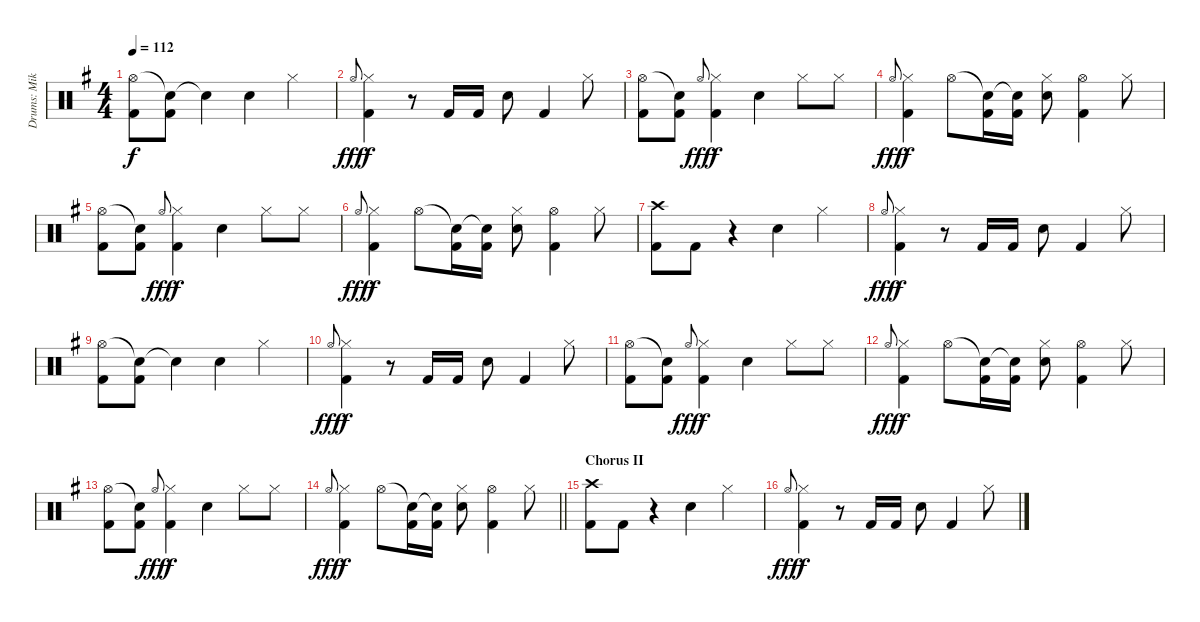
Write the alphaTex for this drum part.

\track ("Drums: Mike" "Drums: Mik") {instrument percussion}
\staff {score}
\articulation defaults
\ts (4 4)
\tempo 112
\clef neutral
\ks g
("Hi-Hat (open)" "Kick (hit) 2").8{dy f} ("Snare (hit)"{t} "Kick (hit) 2").8 "Snare (hit)"{t}.4 "Electric Snare (hit)".4 "Hi-Hat (closed)".4 |
"Hi-Hat (open)".8{gr onbeat dy fff} ("Hi-Hat (closed)" "Kick (hit) 2").4{dy f} r.8 "Kick (hit) 2".16 "Kick (hit) 2".16 "Electric Snare (hit)".8 "Kick (hit) 2".4 "Hi-Hat (closed)".8 |
("Hi-Hat (open)" "Kick (hit) 2").8 ("Snare (hit)"{t} "Kick (hit) 2").8 "Hi-Hat (open)".8{gr onbeat dy fff} ("Hi-Hat (closed)" "Kick (hit) 2").4{dy f} "Electric Snare (hit)".4 "Hi-Hat (closed)".8 "Hi-Hat (closed)".8 |
"Hi-Hat (open)".8{gr onbeat dy fff} ("Hi-Hat (closed)" "Kick (hit) 2").4{dy f} "Hi-Hat (open)".8 ("Snare (hit)"{t} "Kick (hit) 2").16 ("Snare (hit)"{t} "Kick (hit) 2").16 ("Hi-Hat (closed)" "Electric Snare (hit)").8 ("Hi-Hat (open)" "Kick (hit) 2").4 "Hi-Hat (closed)".8 |
("Hi-Hat (open)" "Kick (hit) 2").8 ("Snare (hit)"{t} "Kick (hit) 2").8 "Hi-Hat (open)".8{gr onbeat dy fff} ("Hi-Hat (closed)" "Kick (hit) 2").4{dy f} "Electric Snare (hit)".4 "Hi-Hat (closed)".8 "Hi-Hat (closed)".8 |
"Hi-Hat (open)".8{gr onbeat dy fff} ("Hi-Hat (closed)" "Kick (hit) 2").4{dy f} "Hi-Hat (open)".8 ("Snare (hit)"{t} "Kick (hit) 2").16 ("Snare (hit)"{t} "Kick (hit) 2").16 ("Hi-Hat (closed)" "Electric Snare (hit)").8 ("Hi-Hat (open)" "Kick (hit) 2").4 "Hi-Hat (closed)".8 |
("Crash high (hit)" "Kick (hit) 2").8 "Kick (hit) 2".8 r.4 "Electric Snare (hit)".4 "Hi-Hat (closed)".4 |
"Hi-Hat (open)".8{gr onbeat dy fff} ("Hi-Hat (closed)" "Kick (hit) 2").4{dy f} r.8 "Kick (hit) 2".16 "Kick (hit) 2".16 "Electric Snare (hit)".8 "Kick (hit) 2".4 "Hi-Hat (closed)".8 |
("Hi-Hat (open)" "Kick (hit) 2").8 ("Snare (hit)"{t} "Kick (hit) 2").8 "Snare (hit)"{t}.4 "Electric Snare (hit)".4 "Hi-Hat (closed)".4 |
"Hi-Hat (open)".8{gr onbeat dy fff} ("Hi-Hat (closed)" "Kick (hit) 2").4{dy f} r.8 "Kick (hit) 2".16 "Kick (hit) 2".16 "Electric Snare (hit)".8 "Kick (hit) 2".4 "Hi-Hat (closed)".8 |
("Hi-Hat (open)" "Kick (hit) 2").8 ("Snare (hit)"{t} "Kick (hit) 2").8 "Hi-Hat (open)".8{gr onbeat dy fff} ("Hi-Hat (closed)" "Kick (hit) 2").4{dy f} "Electric Snare (hit)".4 "Hi-Hat (closed)".8 "Hi-Hat (closed)".8 |
"Hi-Hat (open)".8{gr onbeat dy fff} ("Hi-Hat (closed)" "Kick (hit) 2").4{dy f} "Hi-Hat (open)".8 ("Snare (hit)"{t} "Kick (hit) 2").16 ("Snare (hit)"{t} "Kick (hit) 2").16 ("Hi-Hat (closed)" "Electric Snare (hit)").8 ("Hi-Hat (open)" "Kick (hit) 2").4 "Hi-Hat (closed)".8 |
("Hi-Hat (open)" "Kick (hit) 2").8 ("Snare (hit)"{t} "Kick (hit) 2").8 "Hi-Hat (open)".8{gr onbeat dy fff} ("Hi-Hat (closed)" "Kick (hit) 2").4{dy f} "Electric Snare (hit)".4 "Hi-Hat (closed)".8 "Hi-Hat (closed)".8 |
\barLineRight lightlight "Hi-Hat (open)".8{gr onbeat dy fff}
("Hi-Hat (closed)" "Kick (hit) 2").4{dy f} "Hi-Hat (open)".8 ("Snare (hit)"{t} "Kick (hit) 2").16 ("Snare (hit)"{t} "Kick (hit) 2").16 ("Hi-Hat (closed)" "Electric Snare (hit)").8 ("Hi-Hat (open)" "Kick (hit) 2").4 "Hi-Hat (closed)".8 |
\section ("" "Chorus II")
("Crash high (hit)" "Kick (hit) 2").8 "Kick (hit) 2".8 r.4 "Electric Snare (hit)".4 "Hi-Hat (closed)".4 |
"Hi-Hat (open)".8{gr onbeat dy fff} ("Hi-Hat (closed)" "Kick (hit) 2").4{dy f} r.8 "Kick (hit) 2".16 "Kick (hit) 2".16 "Electric Snare (hit)".8 "Kick (hit) 2".4 "Hi-Hat (closed)".8
